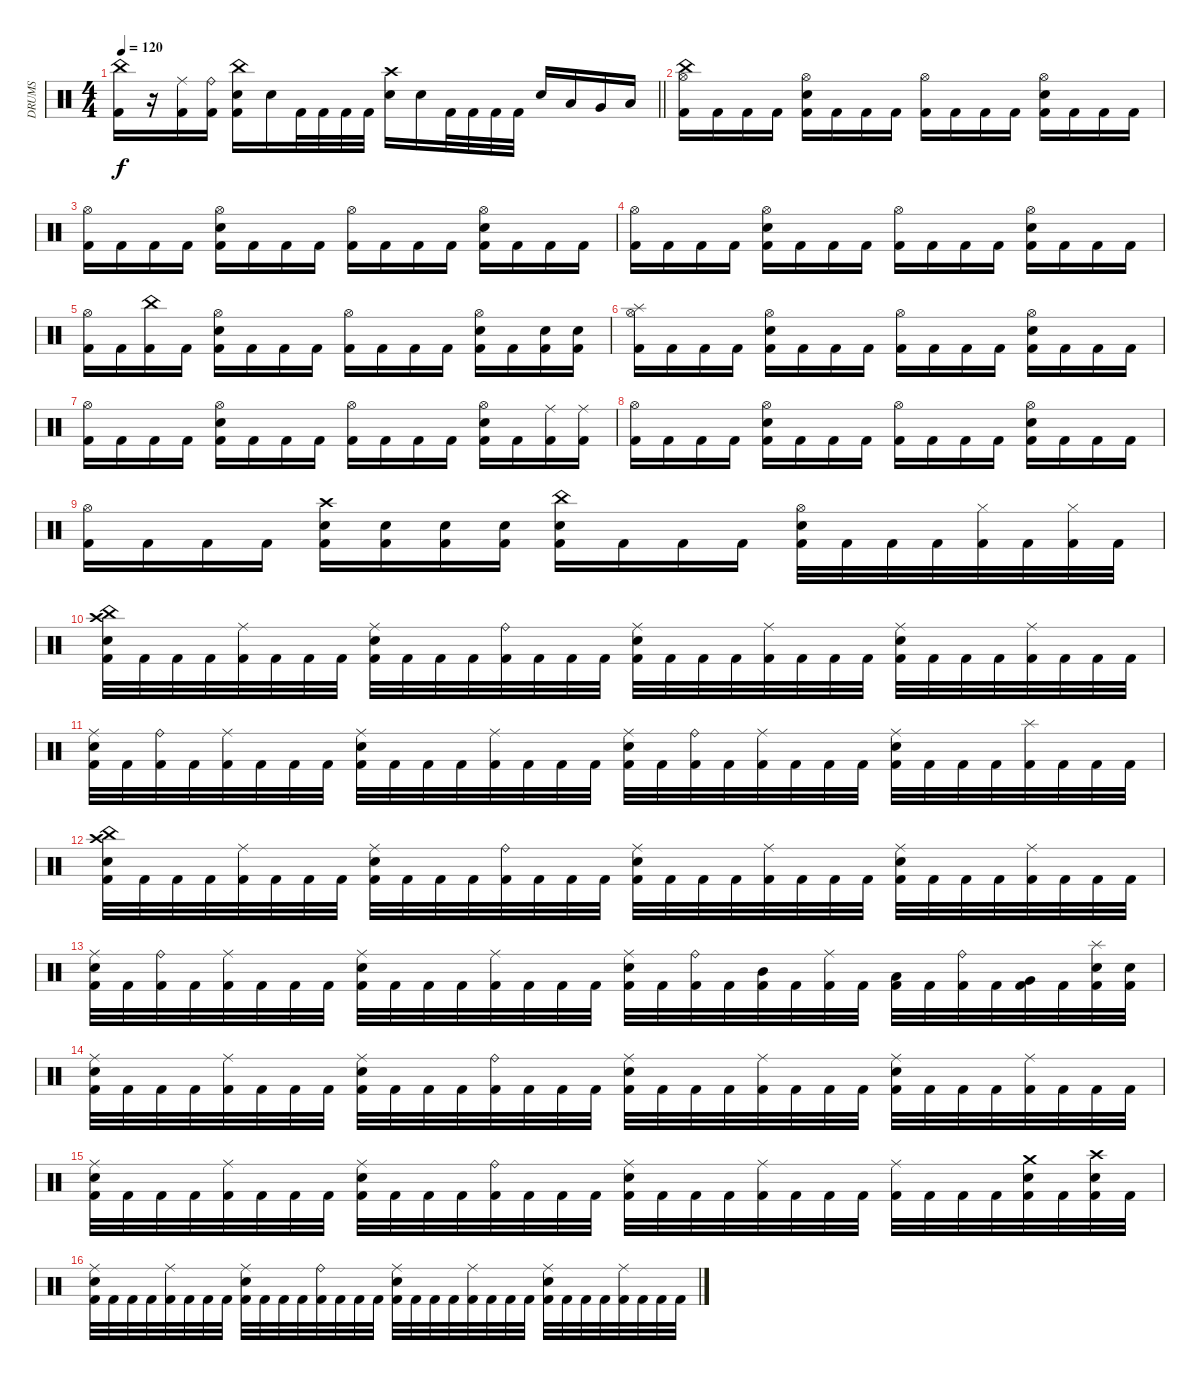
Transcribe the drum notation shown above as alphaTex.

\track ("DRUMS" "DRUMS") {instrument percussion}
\staff {score}
\articulation defaults
\ts (4 4)
\tempo 120
\clef neutral
\barLineRight lightlight
\ks c
("China (hit)" "Kick (hit) 2").16{dy f} r.16 ("Ride (middle)" "Kick (hit) 2").16 ("Ride (bell)" "Kick (hit) 2").16 ("China (hit)" "Electric Snare (hit)" "Kick (hit) 2").16 "Electric Snare (hit)".16 "Kick (hit) 2".32 "Kick (hit) 2".32 "Kick (hit) 2".32 "Kick (hit) 2".32 ("Crash high (hit)" "Electric Snare (hit)").16 "Electric Snare (hit)".16 "Kick (hit) 2".32 "Kick (hit) 2".32 "Kick (hit) 2".32 "Kick (hit) 2".32 "Electric Snare (hit)".16 "Low Tom (hit)".16 "Very Low Tom (hit)".16 "Low Floor Tom (hit)".16 |
("Hi-Hat (open)" "China (hit)" "Kick (hit) 2").16 "Kick (hit) 2".16 "Kick (hit) 2".16 "Kick (hit) 2".16 ("Hi-Hat (open)" "Electric Snare (hit)" "Kick (hit) 2").16 "Kick (hit) 2".16 "Kick (hit) 2".16 "Kick (hit) 2".16 ("Hi-Hat (open)" "Kick (hit) 2").16 "Kick (hit) 2".16 "Kick (hit) 2".16 "Kick (hit) 2".16 ("Hi-Hat (open)" "Electric Snare (hit)" "Kick (hit) 2").16 "Kick (hit) 2".16 "Kick (hit) 2".16 "Kick (hit) 2".16 |
("Hi-Hat (open)" "Kick (hit) 2").16 "Kick (hit) 2".16 "Kick (hit) 2".16 "Kick (hit) 2".16 ("Hi-Hat (open)" "Electric Snare (hit)" "Kick (hit) 2").16 "Kick (hit) 2".16 "Kick (hit) 2".16 "Kick (hit) 2".16 ("Hi-Hat (open)" "Kick (hit) 2").16 "Kick (hit) 2".16 "Kick (hit) 2".16 "Kick (hit) 2".16 ("Hi-Hat (open)" "Electric Snare (hit)" "Kick (hit) 2").16 "Kick (hit) 2".16 "Kick (hit) 2".16 "Kick (hit) 2".16 |
("Hi-Hat (open)" "Kick (hit) 2").16 "Kick (hit) 2".16 "Kick (hit) 2".16 "Kick (hit) 2".16 ("Hi-Hat (open)" "Electric Snare (hit)" "Kick (hit) 2").16 "Kick (hit) 2".16 "Kick (hit) 2".16 "Kick (hit) 2".16 ("Hi-Hat (open)" "Kick (hit) 2").16 "Kick (hit) 2".16 "Kick (hit) 2".16 "Kick (hit) 2".16 ("Hi-Hat (open)" "Electric Snare (hit)" "Kick (hit) 2").16 "Kick (hit) 2".16 "Kick (hit) 2".16 "Kick (hit) 2".16 |
("Hi-Hat (open)" "Kick (hit) 2").16 "Kick (hit) 2".16 ("China (hit)" "Kick (hit) 2").16 "Kick (hit) 2".16 ("Hi-Hat (open)" "Electric Snare (hit)" "Kick (hit) 2").16 "Kick (hit) 2".16 "Kick (hit) 2".16 "Kick (hit) 2".16 ("Hi-Hat (open)" "Kick (hit) 2").16 "Kick (hit) 2".16 "Kick (hit) 2".16 "Kick (hit) 2".16 ("Hi-Hat (open)" "Electric Snare (hit)" "Kick (hit) 2").16 "Kick (hit) 2".16 ("Electric Snare (hit)" "Kick (hit) 2").16 ("Electric Snare (hit)" "Kick (hit) 2").16 |
("Hi-Hat (open)" "Splash (hit)" "Kick (hit) 2").16 "Kick (hit) 2".16 "Kick (hit) 2".16 "Kick (hit) 2".16 ("Hi-Hat (open)" "Electric Snare (hit)" "Kick (hit) 2").16 "Kick (hit) 2".16 "Kick (hit) 2".16 "Kick (hit) 2".16 ("Hi-Hat (open)" "Kick (hit) 2").16 "Kick (hit) 2".16 "Kick (hit) 2".16 "Kick (hit) 2".16 ("Hi-Hat (open)" "Electric Snare (hit)" "Kick (hit) 2").16 "Kick (hit) 2".16 "Kick (hit) 2".16 "Kick (hit) 2".16 |
("Hi-Hat (open)" "Kick (hit) 2").16 "Kick (hit) 2".16 "Kick (hit) 2".16 "Kick (hit) 2".16 ("Hi-Hat (open)" "Electric Snare (hit)" "Kick (hit) 2").16 "Kick (hit) 2".16 "Kick (hit) 2".16 "Kick (hit) 2".16 ("Hi-Hat (open)" "Kick (hit) 2").16 "Kick (hit) 2".16 "Kick (hit) 2".16 "Kick (hit) 2".16 ("Hi-Hat (open)" "Electric Snare (hit)" "Kick (hit) 2").16 "Kick (hit) 2".16 ("Ride (middle)" "Kick (hit) 2").16 ("Ride (middle)" "Kick (hit) 2").16 |
("Hi-Hat (open)" "Kick (hit) 2").16 "Kick (hit) 2".16 "Kick (hit) 2".16 "Kick (hit) 2".16 ("Hi-Hat (open)" "Electric Snare (hit)" "Kick (hit) 2").16 "Kick (hit) 2".16 "Kick (hit) 2".16 "Kick (hit) 2".16 ("Hi-Hat (open)" "Kick (hit) 2").16 "Kick (hit) 2".16 "Kick (hit) 2".16 "Kick (hit) 2".16 ("Hi-Hat (open)" "Electric Snare (hit)" "Kick (hit) 2").16 "Kick (hit) 2".16 "Kick (hit) 2".16 "Kick (hit) 2".16 |
("Hi-Hat (open)" "Kick (hit) 2").16 "Kick (hit) 2".16 "Kick (hit) 2".16 "Kick (hit) 2".16 ("Crash high (hit)" "Electric Snare (hit)" "Kick (hit) 2").16 ("Electric Snare (hit)" "Kick (hit) 2").16 ("Electric Snare (hit)" "Kick (hit) 2").16 ("Electric Snare (hit)" "Kick (hit) 2").16 ("China (hit)" "Electric Snare (hit)" "Kick (hit) 2").16 "Kick (hit) 2".16 "Kick (hit) 2".16 "Kick (hit) 2".16 ("Hi-Hat (open)" "Electric Snare (hit)" "Kick (hit) 2").32 "Kick (hit) 2".32 "Kick (hit) 2".32 "Kick (hit) 2".32 ("Hi-Hat (closed)" "Kick (hit) 2").32 "Kick (hit) 2".32 ("Hi-Hat (closed)" "Kick (hit) 2").32 "Kick (hit) 2".32 |
("China (hit)" "Electric Snare (hit)" "Crash high (hit)" "Kick (hit) 2").32 "Kick (hit) 2".32 "Kick (hit) 2".32 "Kick (hit) 2".32 ("Ride (middle)" "Kick (hit) 2").32 "Kick (hit) 2".32 "Kick (hit) 2".32 "Kick (hit) 2".32 ("Ride (middle)" "Electric Snare (hit)" "Kick (hit) 2").32 "Kick (hit) 2".32 "Kick (hit) 2".32 "Kick (hit) 2".32 ("Ride (bell)" "Kick (hit) 2").32 "Kick (hit) 2".32 "Kick (hit) 2".32 "Kick (hit) 2".32 ("Ride (middle)" "Electric Snare (hit)" "Kick (hit) 2").32 "Kick (hit) 2".32 "Kick (hit) 2".32 "Kick (hit) 2".32 ("Ride (middle)" "Kick (hit) 2").32 "Kick (hit) 2".32 "Kick (hit) 2".32 "Kick (hit) 2".32 ("Ride (middle)" "Electric Snare (hit)" "Kick (hit) 2").32 "Kick (hit) 2".32 "Kick (hit) 2".32 "Kick (hit) 2".32 ("Ride (middle)" "Kick (hit) 2").32 "Kick (hit) 2".32 "Kick (hit) 2".32 "Kick (hit) 2".32 |
("Ride (middle)" "Electric Snare (hit)" "Kick (hit) 2").32 "Kick (hit) 2".32 ("Ride (bell)" "Kick (hit) 2").32 "Kick (hit) 2".32 ("Ride (middle)" "Kick (hit) 2").32 "Kick (hit) 2".32 "Kick (hit) 2".32 "Kick (hit) 2".32 ("Ride (middle)" "Electric Snare (hit)" "Kick (hit) 2").32 "Kick (hit) 2".32 "Kick (hit) 2".32 "Kick (hit) 2".32 ("Ride (middle)" "Kick (hit) 2").32 "Kick (hit) 2".32 "Kick (hit) 2".32 "Kick (hit) 2".32 ("Ride (middle)" "Electric Snare (hit)" "Kick (hit) 2").32 "Kick (hit) 2".32 ("Ride (bell)" "Kick (hit) 2").32 "Kick (hit) 2".32 ("Ride (middle)" "Kick (hit) 2").32 "Kick (hit) 2".32 "Kick (hit) 2".32 "Kick (hit) 2".32 ("Ride (middle)" "Electric Snare (hit)" "Kick (hit) 2").32 "Kick (hit) 2".32 "Kick (hit) 2".32 "Kick (hit) 2".32 ("Splash (hit)" "Kick (hit) 2").32 "Kick (hit) 2".32 "Kick (hit) 2".32 "Kick (hit) 2".32 |
("China (hit)" "Electric Snare (hit)" "Crash high (hit)" "Kick (hit) 2").32 "Kick (hit) 2".32 "Kick (hit) 2".32 "Kick (hit) 2".32 ("Ride (middle)" "Kick (hit) 2").32 "Kick (hit) 2".32 "Kick (hit) 2".32 "Kick (hit) 2".32 ("Ride (middle)" "Electric Snare (hit)" "Kick (hit) 2").32 "Kick (hit) 2".32 "Kick (hit) 2".32 "Kick (hit) 2".32 ("Ride (bell)" "Kick (hit) 2").32 "Kick (hit) 2".32 "Kick (hit) 2".32 "Kick (hit) 2".32 ("Ride (middle)" "Electric Snare (hit)" "Kick (hit) 2").32 "Kick (hit) 2".32 "Kick (hit) 2".32 "Kick (hit) 2".32 ("Ride (middle)" "Kick (hit) 2").32 "Kick (hit) 2".32 "Kick (hit) 2".32 "Kick (hit) 2".32 ("Ride (middle)" "Electric Snare (hit)" "Kick (hit) 2").32 "Kick (hit) 2".32 "Kick (hit) 2".32 "Kick (hit) 2".32 ("Ride (middle)" "Kick (hit) 2").32 "Kick (hit) 2".32 "Kick (hit) 2".32 "Kick (hit) 2".32 |
("Ride (middle)" "Electric Snare (hit)" "Kick (hit) 2").32 "Kick (hit) 2".32 ("Ride (bell)" "Kick (hit) 2").32 "Kick (hit) 2".32 ("Ride (middle)" "Kick (hit) 2").32 "Kick (hit) 2".32 "Kick (hit) 2".32 "Kick (hit) 2".32 ("Ride (middle)" "Electric Snare (hit)" "Kick (hit) 2").32 "Kick (hit) 2".32 "Kick (hit) 2".32 "Kick (hit) 2".32 ("Ride (middle)" "Kick (hit) 2").32 "Kick (hit) 2".32 "Kick (hit) 2".32 "Kick (hit) 2".32 ("Ride (middle)" "Electric Snare (hit)" "Kick (hit) 2").32 "Kick (hit) 2".32 ("Ride (bell)" "Kick (hit) 2").32 "Kick (hit) 2".32 ("Mid Tom (hit)" "Kick (hit) 2").32 "Kick (hit) 2".32 ("Ride (middle)" "Kick (hit) 2").32 "Kick (hit) 2".32 ("Low Tom (hit)" "Kick (hit) 2").32 "Kick (hit) 2".32 ("Ride (bell)" "Kick (hit) 2").32 "Kick (hit) 2".32 ("Very Low Tom (hit)" "Kick (hit) 2").32 "Kick (hit) 2".32 ("Splash (hit)" "Electric Snare (hit)" "Kick (hit) 2").32 ("Electric Snare (hit)" "Kick (hit) 2").32 |
("Ride (middle)" "Electric Snare (hit)" "Kick (hit) 2").32 "Kick (hit) 2".32 "Kick (hit) 2".32 "Kick (hit) 2".32 ("Ride (middle)" "Kick (hit) 2").32 "Kick (hit) 2".32 "Kick (hit) 2".32 "Kick (hit) 2".32 ("Ride (middle)" "Electric Snare (hit)" "Kick (hit) 2").32 "Kick (hit) 2".32 "Kick (hit) 2".32 "Kick (hit) 2".32 ("Ride (bell)" "Kick (hit) 2").32 "Kick (hit) 2".32 "Kick (hit) 2".32 "Kick (hit) 2".32 ("Ride (middle)" "Electric Snare (hit)" "Kick (hit) 2").32 "Kick (hit) 2".32 "Kick (hit) 2".32 "Kick (hit) 2".32 ("Ride (middle)" "Kick (hit) 2").32 "Kick (hit) 2".32 "Kick (hit) 2".32 "Kick (hit) 2".32 ("Ride (middle)" "Electric Snare (hit)" "Kick (hit) 2").32 "Kick (hit) 2".32 "Kick (hit) 2".32 "Kick (hit) 2".32 ("Ride (middle)" "Kick (hit) 2").32 "Kick (hit) 2".32 "Kick (hit) 2".32 "Kick (hit) 2".32 |
("Ride (middle)" "Electric Snare (hit)" "Kick (hit) 2").32 "Kick (hit) 2".32 "Kick (hit) 2".32 "Kick (hit) 2".32 ("Ride (middle)" "Kick (hit) 2").32 "Kick (hit) 2".32 "Kick (hit) 2".32 "Kick (hit) 2".32 ("Ride (middle)" "Electric Snare (hit)" "Kick (hit) 2").32 "Kick (hit) 2".32 "Kick (hit) 2".32 "Kick (hit) 2".32 ("Ride (bell)" "Kick (hit) 2").32 "Kick (hit) 2".32 "Kick (hit) 2".32 "Kick (hit) 2".32 ("Ride (middle)" "Electric Snare (hit)" "Kick (hit) 2").32 "Kick (hit) 2".32 "Kick (hit) 2".32 "Kick (hit) 2".32 ("Ride (middle)" "Kick (hit) 2").32 "Kick (hit) 2".32 "Kick (hit) 2".32 "Kick (hit) 2".32 ("Ride (middle)" "Kick (hit) 2").32 "Kick (hit) 2".32 "Kick (hit) 2".32 "Kick (hit) 2".32 ("Crash medium (hit)" "Electric Snare (hit)" "Kick (hit) 2").32 "Kick (hit) 2".32 ("Crash high (hit)" "Electric Snare (hit)" "Kick (hit) 2").32 "Kick (hit) 2".32 |
("Ride (middle)" "Electric Snare (hit)" "Kick (hit) 2").32 "Kick (hit) 2".32 "Kick (hit) 2".32 "Kick (hit) 2".32 ("Ride (middle)" "Kick (hit) 2").32 "Kick (hit) 2".32 "Kick (hit) 2".32 "Kick (hit) 2".32 ("Ride (middle)" "Electric Snare (hit)" "Kick (hit) 2").32 "Kick (hit) 2".32 "Kick (hit) 2".32 "Kick (hit) 2".32 ("Ride (bell)" "Kick (hit) 2").32 "Kick (hit) 2".32 "Kick (hit) 2".32 "Kick (hit) 2".32 ("Ride (middle)" "Electric Snare (hit)" "Kick (hit) 2").32 "Kick (hit) 2".32 "Kick (hit) 2".32 "Kick (hit) 2".32 ("Ride (middle)" "Kick (hit) 2").32 "Kick (hit) 2".32 "Kick (hit) 2".32 "Kick (hit) 2".32 ("Ride (middle)" "Electric Snare (hit)" "Kick (hit) 2").32 "Kick (hit) 2".32 "Kick (hit) 2".32 "Kick (hit) 2".32 ("Ride (middle)" "Kick (hit) 2").32 "Kick (hit) 2".32 "Kick (hit) 2".32 "Kick (hit) 2".32
